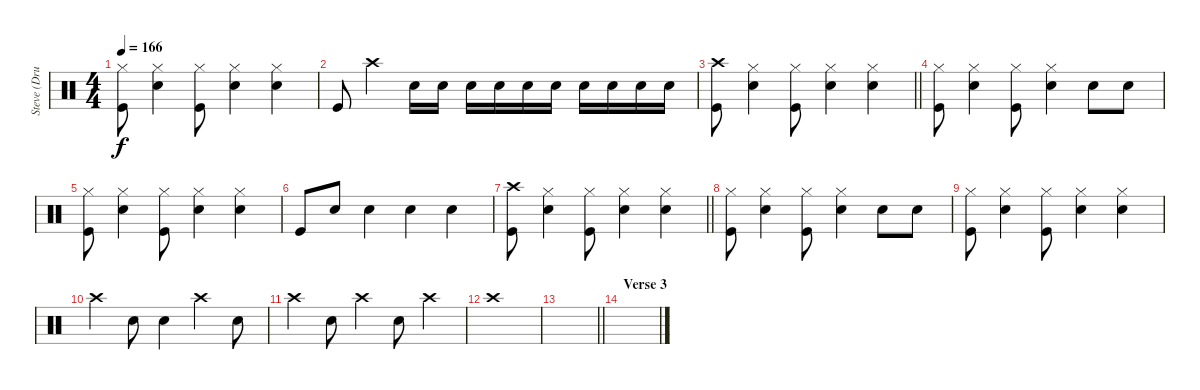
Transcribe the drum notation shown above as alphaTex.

\track ("Steve (Drums)" "Steve (Dru") {instrument percussion}
\staff {score}
\articulation defaults
\ts (4 4)
\tempo 166
\clef neutral
\ks c
("Hi-Hat (closed)" "Kick (hit)").8{dy f} ("Hi-Hat (closed)" "Electric Snare (hit)").4 ("Hi-Hat (closed)" "Kick (hit)").8 ("Hi-Hat (closed)" "Electric Snare (hit)").4 ("Hi-Hat (closed)" "Electric Snare (hit)").4 |
"Kick (hit)".8 "Crash high (hit)".4 "Electric Snare (hit)".16 "Electric Snare (hit)".16 "Electric Snare (hit)".16 "Electric Snare (hit)".16 "Electric Snare (hit)".16 "Electric Snare (hit)".16 "Electric Snare (hit)".16 "Electric Snare (hit)".16 "Electric Snare (hit)".16 "Electric Snare (hit)".16 |
\barLineRight lightlight
("Crash high (hit)" "Kick (hit)").8 ("Hi-Hat (closed)" "Electric Snare (hit)").4 ("Hi-Hat (closed)" "Kick (hit)").8 ("Hi-Hat (closed)" "Electric Snare (hit)").4 ("Hi-Hat (closed)" "Electric Snare (hit)").4 |
("Hi-Hat (closed)" "Kick (hit)").8 ("Hi-Hat (closed)" "Electric Snare (hit)").4 ("Hi-Hat (closed)" "Kick (hit)").8 ("Hi-Hat (closed)" "Electric Snare (hit)").4 "Electric Snare (hit)".8 "Electric Snare (hit)".8 |
("Hi-Hat (closed)" "Kick (hit)").8 ("Hi-Hat (closed)" "Electric Snare (hit)").4 ("Hi-Hat (closed)" "Kick (hit)").8 ("Hi-Hat (closed)" "Electric Snare (hit)").4 ("Hi-Hat (closed)" "Electric Snare (hit)").4 |
"Kick (hit)".8 "Electric Snare (hit)".8 "Electric Snare (hit)".4 "Electric Snare (hit)".4 "Electric Snare (hit)".4 |
\barLineRight lightlight
("Crash high (hit)" "Kick (hit)").8 ("Hi-Hat (closed)" "Electric Snare (hit)").4 ("Hi-Hat (closed)" "Kick (hit)").8 ("Hi-Hat (closed)" "Electric Snare (hit)").4 ("Hi-Hat (closed)" "Electric Snare (hit)").4 |
("Hi-Hat (closed)" "Kick (hit)").8 ("Hi-Hat (closed)" "Electric Snare (hit)").4 ("Hi-Hat (closed)" "Kick (hit)").8 ("Hi-Hat (closed)" "Electric Snare (hit)").4 "Electric Snare (hit)".8 "Electric Snare (hit)".8 |
("Hi-Hat (closed)" "Kick (hit)").8 ("Hi-Hat (closed)" "Electric Snare (hit)").4 ("Hi-Hat (closed)" "Kick (hit)").8 ("Hi-Hat (closed)" "Electric Snare (hit)").4 ("Hi-Hat (closed)" "Electric Snare (hit)").4 |
"Crash high (hit)".4 "Electric Snare (hit)".8 "Electric Snare (hit)".4 "Crash high (hit)".4 "Electric Snare (hit)".8 |
"Crash high (hit)".4 "Electric Snare (hit)".8 "Crash high (hit)".4 "Electric Snare (hit)".8 "Crash high (hit)".4 |
"Crash high (hit)".1 |
\barLineRight lightlight
|
\section ("" "Verse 3")
